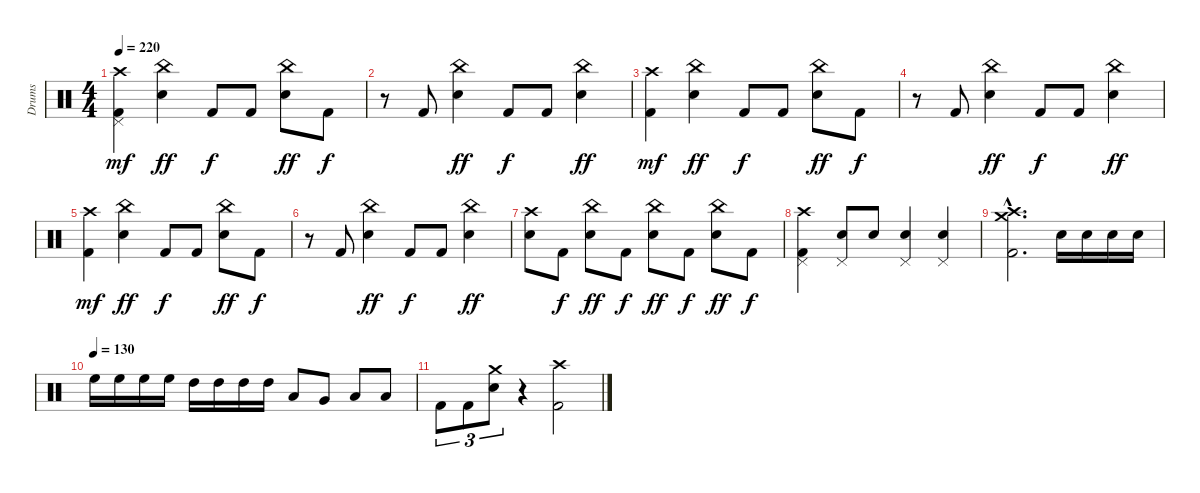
\track ("Drums" "Drums") {instrument percussion}
\staff {score}
\articulation defaults
\ts (4 4)
\tempo 220
\clef neutral
\ks c
("Crash high (hit)" "Pedal Hi-Hat (hit)" "Kick (hit) 2").4{dy mf} ("China (hit)" "Snare (hit) 2").4{dy ff} "Kick (hit) 2".8{dy f} "Kick (hit) 2".8 ("China (hit)" "Snare (hit) 2").8{dy ff} "Kick (hit) 2".8{dy f} |
r.8 "Kick (hit) 2".8 ("China (hit)" "Snare (hit) 2").4{dy ff} "Kick (hit) 2".8{dy f} "Kick (hit) 2".8 ("China (hit)" "Snare (hit) 2").4{dy ff} |
("Crash high (hit)" "Kick (hit) 2").4{dy mf} ("China (hit)" "Snare (hit) 2").4{dy ff} "Kick (hit) 2".8{dy f} "Kick (hit) 2".8 ("China (hit)" "Snare (hit) 2").8{dy ff} "Kick (hit) 2".8{dy f} |
r.8 "Kick (hit) 2".8 ("China (hit)" "Snare (hit) 2").4{dy ff} "Kick (hit) 2".8{dy f} "Kick (hit) 2".8 ("China (hit)" "Snare (hit) 2").4{dy ff} |
("Crash high (hit)" "Kick (hit) 2").4{dy mf} ("China (hit)" "Snare (hit) 2").4{dy ff} "Kick (hit) 2".8{dy f} "Kick (hit) 2".8 ("China (hit)" "Snare (hit) 2").8{dy ff} "Kick (hit) 2".8{dy f} |
r.8 "Kick (hit) 2".8 ("China (hit)" "Snare (hit) 2").4{dy ff} "Kick (hit) 2".8{dy f} "Kick (hit) 2".8 ("China (hit)" "Snare (hit) 2").4{dy ff} |
("Crash high (hit)" "Snare (hit) 2").8 "Kick (hit) 2".8{dy f} ("China (hit)" "Snare (hit) 2").8{dy ff} "Kick (hit) 2".8{dy f} ("China (hit)" "Snare (hit) 2").8{dy ff} "Kick (hit) 2".8{dy f} ("China (hit)" "Snare (hit) 2").8{dy ff} "Kick (hit) 2".8{dy f} |
("Crash high (hit)" "Pedal Hi-Hat (hit)" "Kick (hit) 2").4 ("Pedal Hi-Hat (hit)" "Snare (hit) 2").8 "Snare (hit) 2".8 ("Pedal Hi-Hat (hit)" "Snare (hit) 2").4 ("Pedal Hi-Hat (hit)" "Snare (hit) 2").4 |
("Crash high (hit)"{hac} "Crash medium (hit)"{hac} "Kick (hit) 2"{hac}).2{d} "Snare (hit) 2".16 "Snare (hit) 2".16 "Snare (hit) 2".16 "Snare (hit) 2".16 |
\tempo (130)
"High Floor Tom (hit)".16 "High Floor Tom (hit)".16 "High Floor Tom (hit)".16 "High Floor Tom (hit)".16 "High Tom (hit)".16 "High Tom (hit)".16 "High Tom (hit)".16 "High Tom (hit)".16 "Low Tom (hit)".8 "Very Low Tom (hit)".8 "Low Floor Tom (hit)".8 "Low Floor Tom (hit)".8 |
"Kick (hit) 2".8{tu (3 2)} "Kick (hit) 2".8{tu (3 2)} ("Crash medium (hit)" "Snare (hit) 2").8{tu (3 2)} r.4 ("Crash high (hit)" "Kick (hit) 2").2
